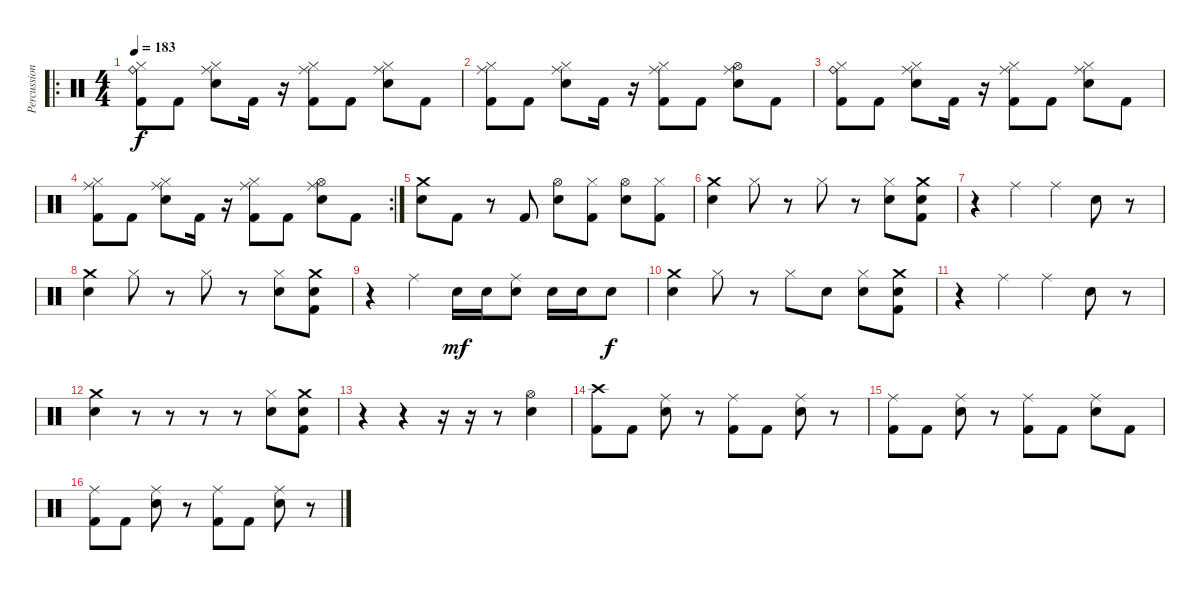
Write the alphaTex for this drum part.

\track ("Percussion" "Percussion") {instrument percussion}
\staff {score}
\articulation defaults
\ro
\ts (4 4)
\tempo 183
\clef neutral
\ks c
("Ride (bell)" "Hi-Hat (closed)" "Kick (hit) 2").8{dy f} "Kick (hit) 2".8 ("Hi-Hat (closed)" "Ride (middle)" "Electric Snare (hit)").8 "Kick (hit) 2".16 r.16 ("Hi-Hat (closed)" "Ride (middle)" "Kick (hit) 2").8 "Kick (hit) 2".8 ("Hi-Hat (closed)" "Ride (middle)" "Electric Snare (hit)").8 "Kick (hit) 2".8 |
("Hi-Hat (closed)" "Ride (middle)" "Kick (hit) 2").8 "Kick (hit) 2".8 ("Hi-Hat (closed)" "Ride (middle)" "Electric Snare (hit)").8 "Kick (hit) 2".16 r.16 ("Hi-Hat (closed)" "Ride (middle)" "Kick (hit) 2").8 "Kick (hit) 2".8 ("Hi-Hat (open)" "Ride (middle)" "Electric Snare (hit)").8 "Kick (hit) 2".8 |
("Ride (bell)" "Hi-Hat (closed)" "Kick (hit) 2").8 "Kick (hit) 2".8 ("Hi-Hat (closed)" "Ride (middle)" "Electric Snare (hit)").8 "Kick (hit) 2".16 r.16 ("Hi-Hat (closed)" "Ride (middle)" "Kick (hit) 2").8 "Kick (hit) 2".8 ("Hi-Hat (closed)" "Ride (middle)" "Electric Snare (hit)").8 "Kick (hit) 2".8 |
\rc 2
("Hi-Hat (closed)" "Ride (middle)" "Kick (hit) 2").8 "Kick (hit) 2".8 ("Hi-Hat (closed)" "Ride (middle)" "Electric Snare (hit)").8 "Kick (hit) 2".16 r.16 ("Hi-Hat (closed)" "Ride (middle)" "Kick (hit) 2").8 "Kick (hit) 2".8 ("Hi-Hat (open)" "Ride (middle)" "Electric Snare (hit)").8 "Kick (hit) 2".8 |
("Crash medium (hit)" "Electric Snare (hit)").8 "Kick (hit) 2".8 r.8 "Kick (hit) 2".8 ("Hi-Hat (open)" "Electric Snare (hit)").8 ("Hi-Hat (closed)" "Kick (hit) 2").8 ("Hi-Hat (open)" "Electric Snare (hit)").8 ("Hi-Hat (closed)" "Kick (hit) 2").8 |
("Crash medium (hit)" "Electric Snare (hit)").4 "Hi-Hat (closed)".8 r.8 "Hi-Hat (closed)".8 r.8 ("Hi-Hat (closed)" "Electric Snare (hit)").8 ("Crash medium (hit)" "Electric Snare (hit)" "Kick (hit) 2").8 |
r.4 "Ride (middle)".4 "Ride (middle)".4 "Electric Snare (hit)".8 r.8 |
("Crash medium (hit)" "Electric Snare (hit)").4 "Hi-Hat (closed)".8 r.8 "Hi-Hat (closed)".8 r.8 ("Hi-Hat (closed)" "Electric Snare (hit)").8 ("Crash medium (hit)" "Electric Snare (hit)" "Kick (hit) 2").8 |
r.4 "Ride (middle)".4 "Electric Snare (hit)".16{dy mf} "Electric Snare (hit)".16 ("Ride (middle)" "Electric Snare (hit)").8 "Electric Snare (hit)".16 "Electric Snare (hit)".16 "Electric Snare (hit)".8{dy f} |
("Crash medium (hit)" "Electric Snare (hit)").4 "Hi-Hat (closed)".8 r.8 "Hi-Hat (closed)".8 "Electric Snare (hit)".8 ("Hi-Hat (closed)" "Electric Snare (hit)").8 ("Crash medium (hit)" "Electric Snare (hit)" "Kick (hit) 2").8 |
r.4 "Ride (middle)".4 "Ride (middle)".4 "Electric Snare (hit)".8 r.8 |
("Crash medium (hit)" "Electric Snare (hit)").4 r.8 r.8 r.8 r.8 ("Hi-Hat (closed)" "Electric Snare (hit)").8 ("Crash medium (hit)" "Electric Snare (hit)" "Kick (hit) 2").8 |
r.4 r.4 r.16 r.16 r.8 ("Hi-Hat (open)" "Electric Snare (hit)").4 |
\section ("" "")
("Crash high (hit)" "Kick (hit) 2").8 "Kick (hit) 2".8 ("Ride (middle)" "Electric Snare (hit)").8 r.8 ("Ride (middle)" "Kick (hit) 2").8 "Kick (hit) 2".8 ("Ride (middle)" "Electric Snare (hit)").8 r.8 |
("Ride (middle)" "Kick (hit) 2").8 "Kick (hit) 2".8 ("Ride (middle)" "Electric Snare (hit)").8 r.8 ("Ride (middle)" "Kick (hit) 2").8 "Kick (hit) 2".8 ("Ride (middle)" "Electric Snare (hit)").8 "Kick (hit) 2".8 |
("Ride (middle)" "Kick (hit) 2").8 "Kick (hit) 2".8 ("Ride (middle)" "Electric Snare (hit)").8 r.8 ("Ride (middle)" "Kick (hit) 2").8 "Kick (hit) 2".8 ("Ride (middle)" "Electric Snare (hit)").8 r.8
